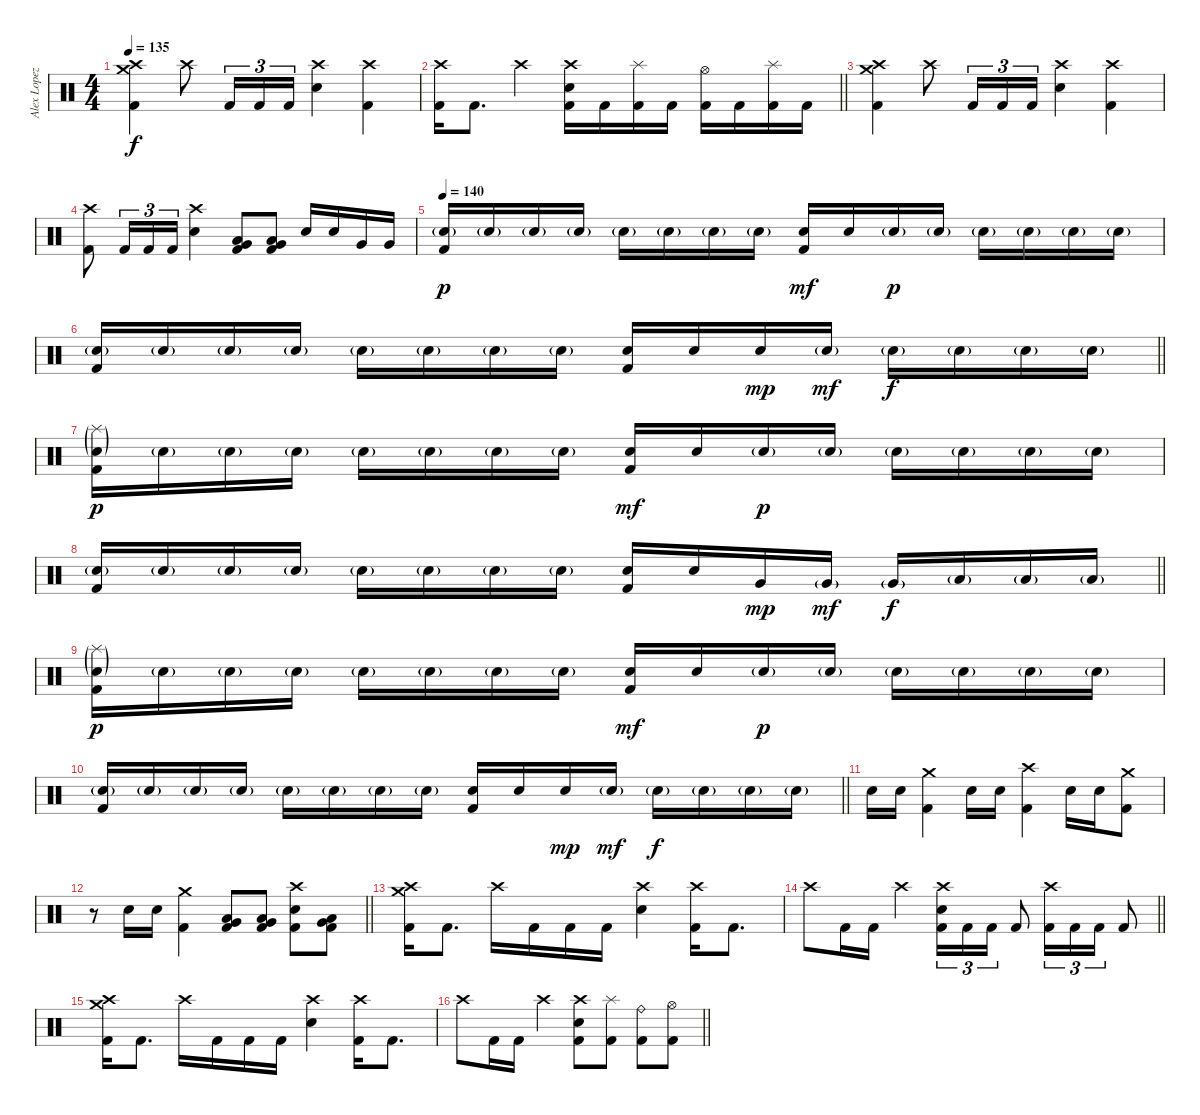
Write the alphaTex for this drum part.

\track ("Alex Lopez" "Alex Lopez") {instrument percussion}
\staff {score}
\articulation defaults
\ts (4 4)
\tempo 135
\clef neutral
\ks c
("Crash medium (hit)" "Crash high (hit)" "Kick (hit) 2").4{dy f} "Crash high (hit)".8 "Kick (hit) 2".16{tu (3 2)} "Kick (hit) 2".16{tu (3 2)} "Kick (hit) 2".16{tu (3 2)} ("Crash high (hit)" "Electric Snare (hit)").4 ("Crash high (hit)" "Kick (hit) 2").4 |
\barLineRight lightlight
("Crash high (hit)" "Kick (hit) 2").16 "Kick (hit) 2".8{d} "Crash high (hit)".4 ("Crash high (hit)" "Electric Snare (hit)" "Kick (hit) 2").16 "Kick (hit) 2".16 ("Splash (hit)" "Kick (hit) 2").16 "Kick (hit) 2".16 ("Hi-Hat (open)" "Kick (hit) 2").16 "Kick (hit) 2".16 ("Splash (hit)" "Kick (hit) 2").16 "Kick (hit) 2".16 |
("Crash medium (hit)" "Crash high (hit)" "Kick (hit) 2").4 "Crash high (hit)".8 "Kick (hit) 2".16{tu (3 2)} "Kick (hit) 2".16{tu (3 2)} "Kick (hit) 2".16{tu (3 2)} ("Crash high (hit)" "Electric Snare (hit)").4 ("Crash high (hit)" "Kick (hit) 2").4 |
("Crash high (hit)" "Kick (hit) 2").8 "Kick (hit) 2".16{tu (3 2)} "Kick (hit) 2".16{tu (3 2)} "Kick (hit) 2".16{tu (3 2)} ("Crash high (hit)" "Electric Snare (hit)").4 ("Low Floor Tom (hit)" "Very Low Tom (hit)" "Kick (hit) 2").8 ("Low Floor Tom (hit)" "Very Low Tom (hit)" "Kick (hit) 2").8 "Electric Snare (hit)".16 "Electric Snare (hit)".16 "Very Low Tom (hit)".16 "Very Low Tom (hit)".16 |
\tempo 140
("Electric Snare (hit)"{g} "Kick (hit) 2").16{dy p} "Electric Snare (hit)"{g}.16 "Electric Snare (hit)"{g}.16 "Electric Snare (hit)"{g}.16 "Electric Snare (hit)"{g}.16 "Electric Snare (hit)"{g}.16 "Electric Snare (hit)"{g}.16 "Electric Snare (hit)"{g}.16 ("Electric Snare (hit)" "Kick (hit) 2").16{dy mf} "Electric Snare (hit)".16 "Electric Snare (hit)"{g}.16{dy p} "Electric Snare (hit)"{g}.16 "Electric Snare (hit)"{g}.16 "Electric Snare (hit)"{g}.16 "Electric Snare (hit)"{g}.16 "Electric Snare (hit)"{g}.16 |
\barLineRight lightlight
("Electric Snare (hit)"{g} "Kick (hit) 2").16 "Electric Snare (hit)"{g}.16 "Electric Snare (hit)"{g}.16 "Electric Snare (hit)"{g}.16 "Electric Snare (hit)"{g}.16 "Electric Snare (hit)"{g}.16 "Electric Snare (hit)"{g}.16 "Electric Snare (hit)"{g}.16 ("Electric Snare (hit)" "Kick (hit) 2").16 "Electric Snare (hit)".16 "Electric Snare (hit)".16{dy mp} "Electric Snare (hit)"{g}.16{dy mf} "Electric Snare (hit)"{g}.16{dy f} "Electric Snare (hit)"{g}.16 "Electric Snare (hit)"{g}.16 "Electric Snare (hit)"{g}.16 |
("Splash (hit)"{g} "Electric Snare (hit)"{g} "Kick (hit) 2").16{dy p} "Electric Snare (hit)"{g}.16 "Electric Snare (hit)"{g}.16 "Electric Snare (hit)"{g}.16 "Electric Snare (hit)"{g}.16 "Electric Snare (hit)"{g}.16 "Electric Snare (hit)"{g}.16 "Electric Snare (hit)"{g}.16 ("Electric Snare (hit)" "Kick (hit) 2").16{dy mf} "Electric Snare (hit)".16 "Electric Snare (hit)"{g}.16{dy p} "Electric Snare (hit)"{g}.16 "Electric Snare (hit)"{g}.16 "Electric Snare (hit)"{g}.16 "Electric Snare (hit)"{g}.16 "Electric Snare (hit)"{g}.16 |
\barLineRight lightlight
("Electric Snare (hit)"{g} "Kick (hit) 2").16 "Electric Snare (hit)"{g}.16 "Electric Snare (hit)"{g}.16 "Electric Snare (hit)"{g}.16 "Electric Snare (hit)"{g}.16 "Electric Snare (hit)"{g}.16 "Electric Snare (hit)"{g}.16 "Electric Snare (hit)"{g}.16 ("Electric Snare (hit)" "Kick (hit) 2").16 "Electric Snare (hit)".16 "Very Low Tom (hit)".16{dy mp} "Very Low Tom (hit)"{g}.16{dy mf} "Very Low Tom (hit)"{g}.16{dy f} "Low Tom (hit)"{g}.16 "Low Tom (hit)"{g}.16 "Low Tom (hit)"{g}.16 |
("Splash (hit)"{g} "Electric Snare (hit)"{g} "Kick (hit) 2").16{dy p} "Electric Snare (hit)"{g}.16 "Electric Snare (hit)"{g}.16 "Electric Snare (hit)"{g}.16 "Electric Snare (hit)"{g}.16 "Electric Snare (hit)"{g}.16 "Electric Snare (hit)"{g}.16 "Electric Snare (hit)"{g}.16 ("Electric Snare (hit)" "Kick (hit) 2").16{dy mf} "Electric Snare (hit)".16 "Electric Snare (hit)"{g}.16{dy p} "Electric Snare (hit)"{g}.16 "Electric Snare (hit)"{g}.16 "Electric Snare (hit)"{g}.16 "Electric Snare (hit)"{g}.16 "Electric Snare (hit)"{g}.16 |
\barLineRight lightlight
("Electric Snare (hit)"{g} "Kick (hit) 2").16 "Electric Snare (hit)"{g}.16 "Electric Snare (hit)"{g}.16 "Electric Snare (hit)"{g}.16 "Electric Snare (hit)"{g}.16 "Electric Snare (hit)"{g}.16 "Electric Snare (hit)"{g}.16 "Electric Snare (hit)"{g}.16 ("Electric Snare (hit)" "Kick (hit) 2").16 "Electric Snare (hit)".16 "Electric Snare (hit)".16{dy mp} "Electric Snare (hit)"{g}.16{dy mf} "Electric Snare (hit)"{g}.16{dy f} "Electric Snare (hit)"{g}.16 "Electric Snare (hit)"{g}.16 "Electric Snare (hit)"{g}.16 |
"Electric Snare (hit)".16 "Electric Snare (hit)".16 ("Crash medium (hit)" "Kick (hit) 2").4 "Electric Snare (hit)".16 "Electric Snare (hit)".16 ("Crash high (hit)" "Kick (hit) 2").4 "Electric Snare (hit)".16 "Electric Snare (hit)".16 ("Crash medium (hit)" "Kick (hit) 2").8 |
\barLineRight lightlight
r.8 "Electric Snare (hit)".16 "Electric Snare (hit)".16 ("Crash medium (hit)" "Kick (hit) 2").4 ("Low Floor Tom (hit)" "Very Low Tom (hit)" "Kick (hit) 2").8 ("Low Floor Tom (hit)" "Very Low Tom (hit)" "Kick (hit) 2").8 ("Crash high (hit)" "Electric Snare (hit)" "Kick (hit) 2").8 ("Low Floor Tom (hit)" "Very Low Tom (hit)" "Kick (hit) 2").8 |
("Crash medium (hit)" "Crash high (hit)" "Kick (hit) 2").16 "Kick (hit) 2".8{d} "Crash high (hit)".16 "Kick (hit) 2".16 "Kick (hit) 2".16 "Kick (hit) 2".16 ("Crash high (hit)" "Electric Snare (hit)").4 ("Crash high (hit)" "Kick (hit) 2").16 "Kick (hit) 2".8{d} |
\barLineRight lightlight "Crash high (hit)".8 "Kick (hit) 2".16 "Kick (hit) 2".16 "Crash high (hit)".4
("Crash high (hit)" "Electric Snare (hit)" "Kick (hit) 2").16{tu (3 2)} "Kick (hit) 2".16{tu (3 2)} "Kick (hit) 2".16{tu (3 2)} "Kick (hit) 2".8 ("Crash high (hit)" "Kick (hit) 2").16{tu (3 2)} "Kick (hit) 2".16{tu (3 2)} "Kick (hit) 2".16{tu (3 2)} "Kick (hit) 2".8 |
("Crash medium (hit)" "Crash high (hit)" "Kick (hit) 2").16 "Kick (hit) 2".8{d} "Crash high (hit)".16 "Kick (hit) 2".16 "Kick (hit) 2".16 "Kick (hit) 2".16 ("Crash high (hit)" "Electric Snare (hit)").4 ("Crash high (hit)" "Kick (hit) 2").16 "Kick (hit) 2".8{d} |
\barLineRight lightlight "Crash high (hit)".8 "Kick (hit) 2".16 "Kick (hit) 2".16 "Crash high (hit)".4
("Crash high (hit)" "Electric Snare (hit)" "Kick (hit) 2").8 ("Splash (hit)" "Kick (hit) 2").8 ("Ride (bell)" "Kick (hit) 2").8 ("Hi-Hat (open)" "Kick (hit) 2").8
